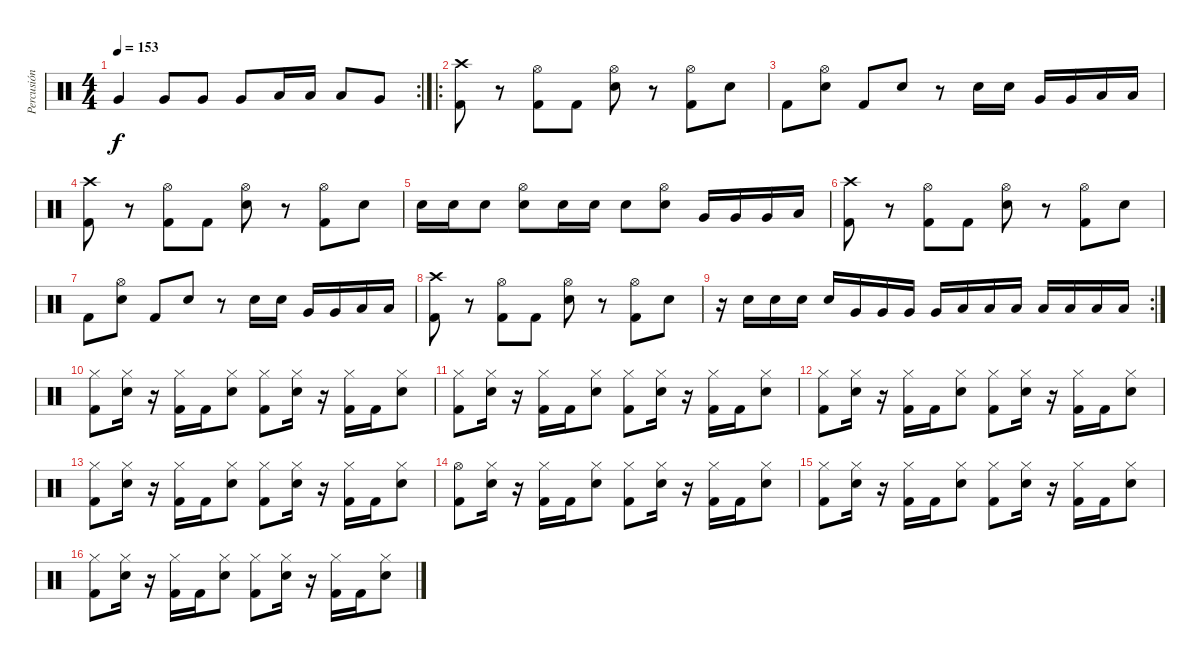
\track ("Percusión" "Percusión") {instrument percussion}
\staff {score}
\articulation defaults
\rc 2
\ts (4 4)
\tempo 153
\clef neutral
\ks c "Very Low Tom (hit)".4{dy f} "Very Low Tom (hit)".8 "Very Low Tom (hit)".8 "Very Low Tom (hit)".8 "Low Tom (hit)".16 "Low Tom (hit)".16 "Low Tom (hit)".8 "Very Low Tom (hit)".8
|
\ro
("Crash high (hit)" "Kick (hit) 2").8 r.8 ("Hi-Hat (open)" "Kick (hit) 2").8 "Kick (hit) 2".8 ("Hi-Hat (open)" "Electric Snare (hit)").8 r.8 ("Hi-Hat (open)" "Kick (hit) 2").8 "Electric Snare (hit)".8 |
"Kick (hit) 2".8 ("Hi-Hat (open)" "Electric Snare (hit)").8 "Kick (hit) 2".8 "Electric Snare (hit)".8 r.8 "Electric Snare (hit)".16 "Electric Snare (hit)".16 "Very Low Tom (hit)".16 "Very Low Tom (hit)".16 "Low Tom (hit)".16 "Low Tom (hit)".16 |
("Crash high (hit)" "Kick (hit) 2").8 r.8 ("Hi-Hat (open)" "Kick (hit) 2").8 "Kick (hit) 2".8 ("Hi-Hat (open)" "Electric Snare (hit)").8 r.8 ("Hi-Hat (open)" "Kick (hit) 2").8 "Electric Snare (hit)".8 |
"Electric Snare (hit)".16 "Electric Snare (hit)".16 "Electric Snare (hit)".8 ("Hi-Hat (open)" "Electric Snare (hit)").8 "Electric Snare (hit)".16 "Electric Snare (hit)".16 "Electric Snare (hit)".8 ("Hi-Hat (open)" "Electric Snare (hit)").8 "Very Low Tom (hit)".16 "Very Low Tom (hit)".16 "Very Low Tom (hit)".16 "Low Tom (hit)".16 |
("Crash high (hit)" "Kick (hit) 2").8 r.8 ("Hi-Hat (open)" "Kick (hit) 2").8 "Kick (hit) 2".8 ("Hi-Hat (open)" "Electric Snare (hit)").8 r.8 ("Hi-Hat (open)" "Kick (hit) 2").8 "Electric Snare (hit)".8 |
"Kick (hit) 2".8 ("Hi-Hat (open)" "Electric Snare (hit)").8 "Kick (hit) 2".8 "Electric Snare (hit)".8 r.8 "Electric Snare (hit)".16 "Electric Snare (hit)".16 "Very Low Tom (hit)".16 "Very Low Tom (hit)".16 "Low Tom (hit)".16 "Low Tom (hit)".16 |
("Crash high (hit)" "Kick (hit) 2").8 r.8 ("Hi-Hat (open)" "Kick (hit) 2").8 "Kick (hit) 2".8 ("Hi-Hat (open)" "Electric Snare (hit)").8 r.8 ("Hi-Hat (open)" "Kick (hit) 2").8 "Electric Snare (hit)".8 |
\rc 2
r.16 "Electric Snare (hit)".16 "Electric Snare (hit)".16 "Electric Snare (hit)".16 "Electric Snare (hit)".16 "Very Low Tom (hit)".16 "Very Low Tom (hit)".16 "Very Low Tom (hit)".16 "Very Low Tom (hit)".16 "Low Tom (hit)".16 "Low Tom (hit)".16 "Low Tom (hit)".16 "Low Tom (hit)".16 "Low Tom (hit)".16 "Low Tom (hit)".16 "Low Tom (hit)".16 |
("Hi-Hat (closed)" "Kick (hit) 2").8 ("Hi-Hat (closed)" "Electric Snare (hit)").16 r.16 ("Hi-Hat (closed)" "Kick (hit) 2").16 "Kick (hit) 2".16 ("Hi-Hat (closed)" "Electric Snare (hit)").8 ("Hi-Hat (closed)" "Kick (hit) 2").8 ("Hi-Hat (closed)" "Electric Snare (hit)").16 r.16 ("Hi-Hat (closed)" "Kick (hit) 2").16 "Kick (hit) 2".16 ("Hi-Hat (closed)" "Electric Snare (hit)").8 |
("Hi-Hat (closed)" "Kick (hit) 2").8 ("Hi-Hat (closed)" "Electric Snare (hit)").16 r.16 ("Hi-Hat (closed)" "Kick (hit) 2").16 "Kick (hit) 2".16 ("Hi-Hat (closed)" "Electric Snare (hit)").8 ("Hi-Hat (closed)" "Kick (hit) 2").8 ("Hi-Hat (closed)" "Electric Snare (hit)").16 r.16 ("Hi-Hat (closed)" "Kick (hit) 2").16 "Kick (hit) 2".16 ("Hi-Hat (closed)" "Electric Snare (hit)").8 |
("Hi-Hat (closed)" "Kick (hit) 2").8 ("Hi-Hat (closed)" "Electric Snare (hit)").16 r.16 ("Hi-Hat (closed)" "Kick (hit) 2").16 "Kick (hit) 2".16 ("Hi-Hat (closed)" "Electric Snare (hit)").8 ("Hi-Hat (closed)" "Kick (hit) 2").8 ("Hi-Hat (closed)" "Electric Snare (hit)").16 r.16 ("Hi-Hat (closed)" "Kick (hit) 2").16 "Kick (hit) 2".16 ("Hi-Hat (closed)" "Electric Snare (hit)").8 |
("Hi-Hat (closed)" "Kick (hit) 2").8 ("Hi-Hat (closed)" "Electric Snare (hit)").16 r.16 ("Hi-Hat (closed)" "Kick (hit) 2").16 "Kick (hit) 2".16 ("Hi-Hat (closed)" "Electric Snare (hit)").8 ("Hi-Hat (closed)" "Kick (hit) 2").8 ("Hi-Hat (closed)" "Electric Snare (hit)").16 r.16 ("Hi-Hat (closed)" "Kick (hit) 2").16 "Kick (hit) 2".16 ("Hi-Hat (closed)" "Electric Snare (hit)").8 |
("Hi-Hat (open)" "Kick (hit) 2").8 ("Hi-Hat (closed)" "Electric Snare (hit)").16 r.16 ("Hi-Hat (closed)" "Kick (hit) 2").16 "Kick (hit) 2".16 ("Hi-Hat (closed)" "Electric Snare (hit)").8 ("Hi-Hat (closed)" "Kick (hit) 2").8 ("Hi-Hat (closed)" "Electric Snare (hit)").16 r.16 ("Hi-Hat (closed)" "Kick (hit) 2").16 "Kick (hit) 2".16 ("Hi-Hat (closed)" "Electric Snare (hit)").8 |
("Hi-Hat (closed)" "Kick (hit) 2").8 ("Hi-Hat (closed)" "Electric Snare (hit)").16 r.16 ("Hi-Hat (closed)" "Kick (hit) 2").16 "Kick (hit) 2".16 ("Hi-Hat (closed)" "Electric Snare (hit)").8 ("Hi-Hat (closed)" "Kick (hit) 2").8 ("Hi-Hat (closed)" "Electric Snare (hit)").16 r.16 ("Hi-Hat (closed)" "Kick (hit) 2").16 "Kick (hit) 2".16 ("Hi-Hat (closed)" "Electric Snare (hit)").8 |
("Hi-Hat (closed)" "Kick (hit) 2").8 ("Hi-Hat (closed)" "Electric Snare (hit)").16 r.16 ("Hi-Hat (closed)" "Kick (hit) 2").16 "Kick (hit) 2".16 ("Hi-Hat (closed)" "Electric Snare (hit)").8 ("Hi-Hat (closed)" "Kick (hit) 2").8 ("Hi-Hat (closed)" "Electric Snare (hit)").16 r.16 ("Hi-Hat (closed)" "Kick (hit) 2").16 "Kick (hit) 2".16 ("Hi-Hat (closed)" "Electric Snare (hit)").8
